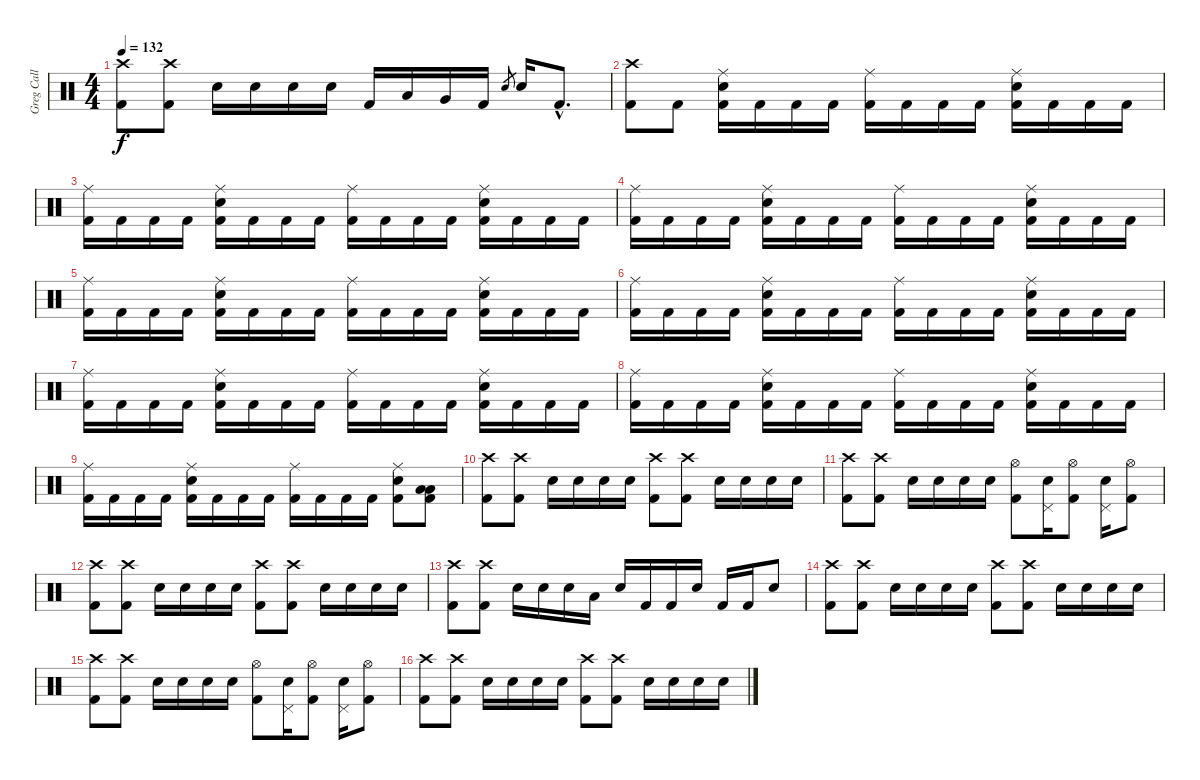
\track ("Greg Call (Drums)" "Greg Call ") {instrument percussion}
\staff {score}
\articulation defaults
\ts (4 4)
\tempo 132
\clef neutral
\ks c
("Crash high (hit)" "Kick (hit) 2").8{dy f} ("Crash high (hit)" "Kick (hit) 2").8 "Snare (hit) 2".16 "Snare (hit) 2".16 "Snare (hit) 2".16 "Snare (hit) 2".16 "Kick (hit) 2".16 "Low Tom (hit)".16 "Very Low Tom (hit)".16 "Kick (hit) 2".16 "Snare (hit) 2".8{gr} "Snare (hit) 2".16 "Kick (hit) 2"{hac}.8{d} |
("Crash high (hit)" "Kick (hit) 2").8 "Kick (hit) 2".8 ("Ride (middle)" "Snare (hit) 2" "Kick (hit) 2").16 "Kick (hit) 2".16 "Kick (hit) 2".16 "Kick (hit) 2".16 ("Ride (middle)" "Kick (hit) 2").16 "Kick (hit) 2".16 "Kick (hit) 2".16 "Kick (hit) 2".16 ("Ride (middle)" "Snare (hit) 2" "Kick (hit) 2").16 "Kick (hit) 2".16 "Kick (hit) 2".16 "Kick (hit) 2".16 |
("Ride (middle)" "Kick (hit) 2").16 "Kick (hit) 2".16 "Kick (hit) 2".16 "Kick (hit) 2".16 ("Ride (middle)" "Snare (hit) 2" "Kick (hit) 2").16 "Kick (hit) 2".16 "Kick (hit) 2".16 "Kick (hit) 2".16 ("Ride (middle)" "Kick (hit) 2").16 "Kick (hit) 2".16 "Kick (hit) 2".16 "Kick (hit) 2".16 ("Ride (middle)" "Snare (hit) 2" "Kick (hit) 2").16 "Kick (hit) 2".16 "Kick (hit) 2".16 "Kick (hit) 2".16 |
("Ride (middle)" "Kick (hit) 2").16 "Kick (hit) 2".16 "Kick (hit) 2".16 "Kick (hit) 2".16 ("Ride (middle)" "Snare (hit) 2" "Kick (hit) 2").16 "Kick (hit) 2".16 "Kick (hit) 2".16 "Kick (hit) 2".16 ("Ride (middle)" "Kick (hit) 2").16 "Kick (hit) 2".16 "Kick (hit) 2".16 "Kick (hit) 2".16 ("Ride (middle)" "Snare (hit) 2" "Kick (hit) 2").16 "Kick (hit) 2".16 "Kick (hit) 2".16 "Kick (hit) 2".16 |
("Ride (middle)" "Kick (hit) 2").16 "Kick (hit) 2".16 "Kick (hit) 2".16 "Kick (hit) 2".16 ("Ride (middle)" "Snare (hit) 2" "Kick (hit) 2").16 "Kick (hit) 2".16 "Kick (hit) 2".16 "Kick (hit) 2".16 ("Ride (middle)" "Kick (hit) 2").16 "Kick (hit) 2".16 "Kick (hit) 2".16 "Kick (hit) 2".16 ("Ride (middle)" "Snare (hit) 2" "Kick (hit) 2").16 "Kick (hit) 2".16 "Kick (hit) 2".16 "Kick (hit) 2".16 |
("Ride (middle)" "Kick (hit) 2").16 "Kick (hit) 2".16 "Kick (hit) 2".16 "Kick (hit) 2".16 ("Ride (middle)" "Snare (hit) 2" "Kick (hit) 2").16 "Kick (hit) 2".16 "Kick (hit) 2".16 "Kick (hit) 2".16 ("Ride (middle)" "Kick (hit) 2").16 "Kick (hit) 2".16 "Kick (hit) 2".16 "Kick (hit) 2".16 ("Ride (middle)" "Snare (hit) 2" "Kick (hit) 2").16 "Kick (hit) 2".16 "Kick (hit) 2".16 "Kick (hit) 2".16 |
("Ride (middle)" "Kick (hit) 2").16 "Kick (hit) 2".16 "Kick (hit) 2".16 "Kick (hit) 2".16 ("Ride (middle)" "Snare (hit) 2" "Kick (hit) 2").16 "Kick (hit) 2".16 "Kick (hit) 2".16 "Kick (hit) 2".16 ("Ride (middle)" "Kick (hit) 2").16 "Kick (hit) 2".16 "Kick (hit) 2".16 "Kick (hit) 2".16 ("Ride (middle)" "Snare (hit) 2" "Kick (hit) 2").16 "Kick (hit) 2".16 "Kick (hit) 2".16 "Kick (hit) 2".16 |
("Ride (middle)" "Kick (hit) 2").16 "Kick (hit) 2".16 "Kick (hit) 2".16 "Kick (hit) 2".16 ("Ride (middle)" "Snare (hit) 2" "Kick (hit) 2").16 "Kick (hit) 2".16 "Kick (hit) 2".16 "Kick (hit) 2".16 ("Ride (middle)" "Kick (hit) 2").16 "Kick (hit) 2".16 "Kick (hit) 2".16 "Kick (hit) 2".16 ("Ride (middle)" "Snare (hit) 2" "Kick (hit) 2").16 "Kick (hit) 2".16 "Kick (hit) 2".16 "Kick (hit) 2".16 |
("Ride (middle)" "Kick (hit) 2").16 "Kick (hit) 2".16 "Kick (hit) 2".16 "Kick (hit) 2".16 ("Ride (middle)" "Snare (hit) 2" "Kick (hit) 2").16 "Kick (hit) 2".16 "Kick (hit) 2".16 "Kick (hit) 2".16 ("Ride (middle)" "Kick (hit) 2").16 "Kick (hit) 2".16 "Kick (hit) 2".16 "Kick (hit) 2".16 ("Ride (middle)" "Snare (hit) 2" "Kick (hit) 2").8 ("Low Floor Tom (hit)" "Low Floor Tom (hit)" "Kick (hit) 2").8 |
("Crash high (hit)" "Kick (hit) 2").8 ("Crash high (hit)" "Kick (hit) 2").8 "Snare (hit) 2".16 "Snare (hit) 2".16 "Snare (hit) 2".16 "Snare (hit) 2".16 ("Crash high (hit)" "Kick (hit) 2").8 ("Crash high (hit)" "Kick (hit) 2").8 "Snare (hit) 2".16 "Snare (hit) 2".16 "Snare (hit) 2".16 "Snare (hit) 2".16 |
("Crash high (hit)" "Kick (hit) 2").8 ("Crash high (hit)" "Kick (hit) 2").8 "Snare (hit) 2".16 "Snare (hit) 2".16 "Snare (hit) 2".16 "Snare (hit) 2".16 ("Hi-Hat (open)" "Kick (hit) 2").8 ("Pedal Hi-Hat (hit)" "Snare (hit) 2").16 ("Hi-Hat (open)" "Kick (hit) 2").8 ("Pedal Hi-Hat (hit)" "Snare (hit) 2").16 ("Hi-Hat (open)" "Kick (hit) 2").8 |
("Crash high (hit)" "Kick (hit) 2").8 ("Crash high (hit)" "Kick (hit) 2").8 "Snare (hit) 2".16 "Snare (hit) 2".16 "Snare (hit) 2".16 "Snare (hit) 2".16 ("Crash high (hit)" "Kick (hit) 2").8 ("Crash high (hit)" "Kick (hit) 2").8 "Snare (hit) 2".16 "Snare (hit) 2".16 "Snare (hit) 2".16 "Snare (hit) 2".16 |
("Crash high (hit)" "Kick (hit) 2").8 ("Crash high (hit)" "Kick (hit) 2").8 "Snare (hit) 2".16 "Snare (hit) 2".16 "Snare (hit) 2".16 "Low Tom (hit)".16 "Snare (hit) 2".16 "Kick (hit) 2".16 "Kick (hit) 2".16 "Snare (hit) 2".16 "Kick (hit) 2".16 "Kick (hit) 2".16 "Snare (hit) 2".8 |
("Crash high (hit)" "Kick (hit) 2").8 ("Crash high (hit)" "Kick (hit) 2").8 "Snare (hit) 2".16 "Snare (hit) 2".16 "Snare (hit) 2".16 "Snare (hit) 2".16 ("Crash high (hit)" "Kick (hit) 2").8 ("Crash high (hit)" "Kick (hit) 2").8 "Snare (hit) 2".16 "Snare (hit) 2".16 "Snare (hit) 2".16 "Snare (hit) 2".16 |
("Crash high (hit)" "Kick (hit) 2").8 ("Crash high (hit)" "Kick (hit) 2").8 "Snare (hit) 2".16 "Snare (hit) 2".16 "Snare (hit) 2".16 "Snare (hit) 2".16 ("Hi-Hat (open)" "Kick (hit) 2").8 ("Pedal Hi-Hat (hit)" "Snare (hit) 2").16 ("Hi-Hat (open)" "Kick (hit) 2").8 ("Pedal Hi-Hat (hit)" "Snare (hit) 2").16 ("Hi-Hat (open)" "Kick (hit) 2").8 |
("Crash high (hit)" "Kick (hit) 2").8 ("Crash high (hit)" "Kick (hit) 2").8 "Snare (hit) 2".16 "Snare (hit) 2".16 "Snare (hit) 2".16 "Snare (hit) 2".16 ("Crash high (hit)" "Kick (hit) 2").8 ("Crash high (hit)" "Kick (hit) 2").8 "Snare (hit) 2".16 "Snare (hit) 2".16 "Snare (hit) 2".16 "Snare (hit) 2".16
